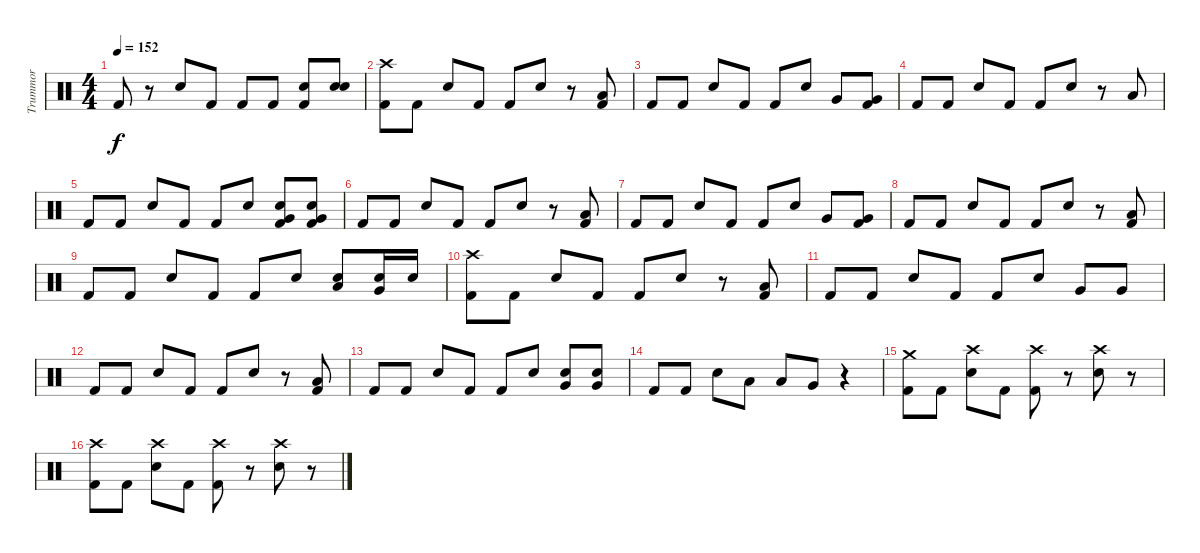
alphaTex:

\track ("Trummor" "Trummor") {instrument percussion}
\staff {score}
\articulation defaults
\ts (4 4)
\tempo 152
\clef neutral
\ks c "Kick (hit) 2".8{dy f}
r.8 "Electric Snare (hit)".8 "Kick (hit) 2".8 "Kick (hit) 2".8 "Kick (hit) 2".8 ("Snare (hit)" "Kick (hit) 2").8 ("Snare (hit)" "Electric Snare (hit)").8 |
("Kick (hit) 2" "Crash high (hit)").8 "Kick (hit) 2".8 "Electric Snare (hit)".8 "Kick (hit) 2".8 "Kick (hit) 2".8 "Electric Snare (hit)".8 r.8 ("Kick (hit) 2" "Low Tom (hit)").8 |
"Kick (hit) 2".8 "Kick (hit) 2".8 "Electric Snare (hit)".8 "Kick (hit) 2".8 "Kick (hit) 2".8 "Electric Snare (hit)".8 "Very Low Tom (hit)".8 ("Kick (hit) 2" "Very Low Tom (hit)").8 |
"Kick (hit) 2".8 "Kick (hit) 2".8 "Electric Snare (hit)".8 "Kick (hit) 2".8 "Kick (hit) 2".8 "Electric Snare (hit)".8 r.8 "Low Tom (hit)".8 |
"Kick (hit) 2".8 "Kick (hit) 2".8 "Electric Snare (hit)".8 "Kick (hit) 2".8 "Kick (hit) 2".8 "Electric Snare (hit)".8 ("Snare (hit)" "Kick (hit) 2" "Very Low Tom (hit)").8 ("Snare (hit)" "Kick (hit) 2" "Very Low Tom (hit)").8 |
"Kick (hit) 2".8 "Kick (hit) 2".8 "Electric Snare (hit)".8 "Kick (hit) 2".8 "Kick (hit) 2".8 "Electric Snare (hit)".8 r.8 ("Kick (hit) 2" "Low Tom (hit)").8 |
"Kick (hit) 2".8 "Kick (hit) 2".8 "Electric Snare (hit)".8 "Kick (hit) 2".8 "Kick (hit) 2".8 "Electric Snare (hit)".8 "Very Low Tom (hit)".8 ("Kick (hit) 2" "Very Low Tom (hit)").8 |
"Kick (hit) 2".8 "Kick (hit) 2".8 "Electric Snare (hit)".8 "Kick (hit) 2".8 "Kick (hit) 2".8 "Electric Snare (hit)".8 r.8 ("Kick (hit) 2" "Low Tom (hit)").8 |
"Kick (hit) 2".8 "Kick (hit) 2".8 "Electric Snare (hit)".8 "Kick (hit) 2".8 "Kick (hit) 2".8 "Electric Snare (hit)".8 ("Snare (hit)" "Low Tom (hit)").8 ("Snare (hit)" "Very Low Tom (hit)").16 "Electric Snare (hit)".16 |
("Kick (hit) 2" "Crash high (hit)").8 "Kick (hit) 2".8 "Electric Snare (hit)".8 "Kick (hit) 2".8 "Kick (hit) 2".8 "Electric Snare (hit)".8 r.8 ("Kick (hit) 2" "Low Tom (hit)").8 |
"Kick (hit) 2".8 "Kick (hit) 2".8 "Electric Snare (hit)".8 "Kick (hit) 2".8 "Kick (hit) 2".8 "Electric Snare (hit)".8 "Very Low Tom (hit)".8 "Very Low Tom (hit)".8 |
"Kick (hit) 2".8 "Kick (hit) 2".8 "Electric Snare (hit)".8 "Kick (hit) 2".8 "Kick (hit) 2".8 "Electric Snare (hit)".8 r.8 ("Kick (hit) 2" "Low Tom (hit)").8 |
"Kick (hit) 2".8 "Kick (hit) 2".8 "Electric Snare (hit)".8 "Kick (hit) 2".8 "Kick (hit) 2".8 "Electric Snare (hit)".8 ("Snare (hit)" "Very Low Tom (hit)").8 ("Snare (hit)" "Very Low Tom (hit)").8 |
"Kick (hit) 2".8 "Kick (hit) 2".8 "Electric Snare (hit)".8 "Low Tom (hit)".8 "Low Tom (hit)".8 "Very Low Tom (hit)".8 r.4 |
("Kick (hit) 2" "Crash medium (hit)").8 "Kick (hit) 2".8 ("Electric Snare (hit)" "Crash high (hit)").8 "Kick (hit) 2".8 ("Kick (hit) 2" "Crash high (hit)").8 r.8 ("Electric Snare (hit)" "Crash high (hit)").8 r.8 |
("Kick (hit) 2" "Crash high (hit)").8 "Kick (hit) 2".8 ("Electric Snare (hit)" "Crash high (hit)").8 "Kick (hit) 2".8 ("Kick (hit) 2" "Crash high (hit)").8 r.8 ("Electric Snare (hit)" "Crash high (hit)").8 r.8
